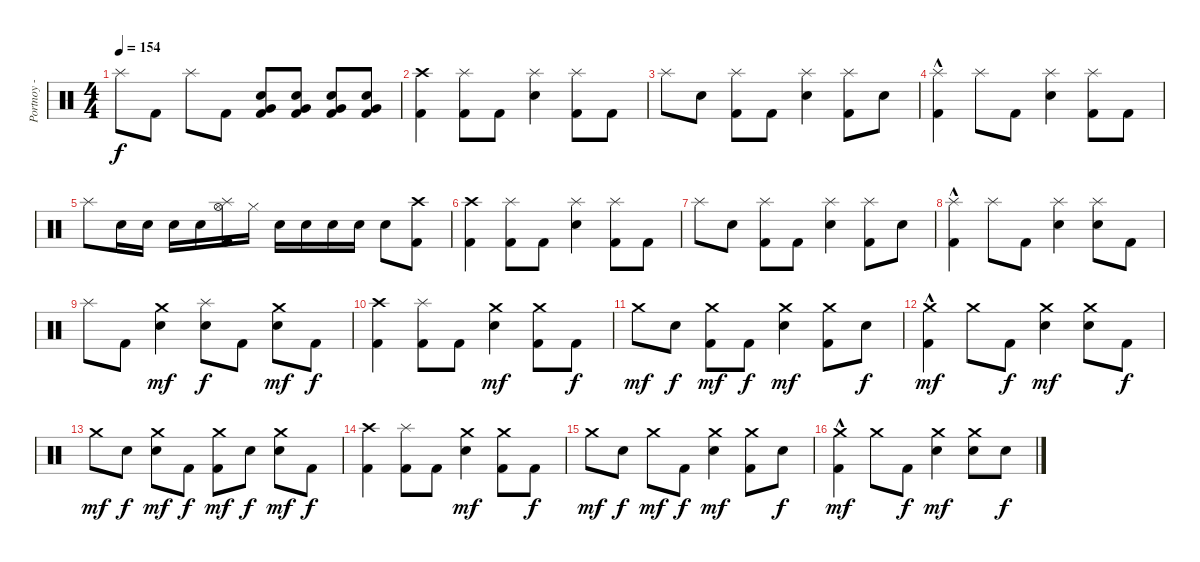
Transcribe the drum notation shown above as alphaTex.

\track ("Portnoy - Drums" "Portnoy - ") {instrument percussion}
\staff {score}
\articulation defaults
\ts (4 4)
\tempo 154
\clef neutral
\ks c "Splash (hit)".8{dy f} "Kick (hit) 2".8 "Splash (hit)".8 "Kick (hit) 2".8
("Electric Snare (hit)" "Kick (hit) 2" "Very Low Tom (hit)").8 ("Electric Snare (hit)" "Kick (hit) 2" "Very Low Tom (hit)").8 ("Electric Snare (hit)" "Kick (hit) 2" "Very Low Tom (hit)").8 ("Electric Snare (hit)" "Kick (hit) 2" "Very Low Tom (hit)").8 |
("Kick (hit) 2" "Crash high (hit)").4 ("Kick (hit) 2" "Splash (hit)").8 "Kick (hit) 2".8 ("Electric Snare (hit)" "Splash (hit)").4 ("Kick (hit) 2" "Splash (hit)").8 "Kick (hit) 2".8 |
"Splash (hit)".8 "Electric Snare (hit)".8 ("Kick (hit) 2" "Splash (hit)").8 "Kick (hit) 2".8 ("Electric Snare (hit)" "Splash (hit)").4 ("Kick (hit) 2" "Splash (hit)").8 "Electric Snare (hit)".8 |
("Kick (hit) 2"{hac} "Splash (hit)").4 "Splash (hit)".8 "Kick (hit) 2".8 ("Electric Snare (hit)" "Splash (hit)").4 ("Kick (hit) 2" "Splash (hit)").8 "Kick (hit) 2".8 |
"Splash (hit)".8 "Electric Snare (hit)".16 "Electric Snare (hit)".16 "Electric Snare (hit)".16 "Electric Snare (hit)".16 ("Kick (hit) 2" "Hi-Hat (open)" "Splash (hit)").16 "Hi-Hat (closed)".16 "Electric Snare (hit)".16 "Electric Snare (hit)".16 "Electric Snare (hit)".16 "Electric Snare (hit)".16 "Electric Snare (hit)".8 ("Kick (hit) 2" "Crash high (hit)").8 |
("Crash high (hit)" "Kick (hit) 2").4 ("Kick (hit) 2" "Splash (hit)").8 "Kick (hit) 2".8 ("Electric Snare (hit)" "Splash (hit)").4 ("Kick (hit) 2" "Splash (hit)").8 "Kick (hit) 2".8 |
"Splash (hit)".8 "Electric Snare (hit)".8 ("Kick (hit) 2" "Splash (hit)").8 "Kick (hit) 2".8 ("Electric Snare (hit)" "Splash (hit)").4 ("Kick (hit) 2" "Splash (hit)").8 "Electric Snare (hit)".8 |
("Kick (hit) 2"{hac} "Splash (hit)").4 "Splash (hit)".8 "Kick (hit) 2".8 ("Electric Snare (hit)" "Splash (hit)").4 ("Electric Snare (hit)" "Splash (hit)").8 "Kick (hit) 2".8 |
"Splash (hit)".8 "Kick (hit) 2".8 ("Electric Snare (hit)" "Crash medium (hit)").4{dy mf} ("Electric Snare (hit)" "Splash (hit)").8{dy f} "Kick (hit) 2".8 ("Electric Snare (hit)" "Crash medium (hit)").8{dy mf} "Kick (hit) 2".8{dy f} |
("Kick (hit) 2" "Crash high (hit)").4 ("Kick (hit) 2" "Splash (hit)").8 "Kick (hit) 2".8 ("Electric Snare (hit)" "Crash medium (hit)").4{dy mf} ("Kick (hit) 2" "Crash medium (hit)").8 "Kick (hit) 2".8{dy f} |
"Crash medium (hit)".8{dy mf} "Electric Snare (hit)".8{dy f} ("Kick (hit) 2" "Crash medium (hit)").8{dy mf} "Kick (hit) 2".8{dy f} ("Electric Snare (hit)" "Crash medium (hit)").4{dy mf} ("Kick (hit) 2" "Crash medium (hit)").8 "Electric Snare (hit)".8{dy f} |
("Kick (hit) 2"{hac} "Crash medium (hit)").4{dy mf} "Crash medium (hit)".8 "Kick (hit) 2".8{dy f} ("Electric Snare (hit)" "Crash medium (hit)").4{dy mf} ("Electric Snare (hit)" "Crash medium (hit)").8 "Kick (hit) 2".8{dy f} |
"Crash medium (hit)".8{dy mf} "Electric Snare (hit)".8{dy f} ("Electric Snare (hit)" "Crash medium (hit)").8{dy mf} "Kick (hit) 2".8{dy f} ("Kick (hit) 2" "Crash medium (hit)").8{dy mf} "Electric Snare (hit)".8{dy f} ("Electric Snare (hit)" "Crash medium (hit)").8{dy mf} "Kick (hit) 2".8{dy f} |
("Crash high (hit)" "Kick (hit) 2").4 ("Kick (hit) 2" "Splash (hit)").8 "Kick (hit) 2".8 ("Electric Snare (hit)" "Crash medium (hit)").4{dy mf} ("Kick (hit) 2" "Crash medium (hit)").8 "Kick (hit) 2".8{dy f} |
"Crash medium (hit)".8{dy mf} "Electric Snare (hit)".8{dy f} "Crash medium (hit)".8{dy mf} "Kick (hit) 2".8{dy f} ("Electric Snare (hit)" "Crash medium (hit)").4{dy mf} ("Kick (hit) 2" "Crash medium (hit)").8 "Electric Snare (hit)".8{dy f} |
("Kick (hit) 2"{hac} "Crash medium (hit)").4{dy mf} "Crash medium (hit)".8 "Kick (hit) 2".8{dy f} ("Electric Snare (hit)" "Crash medium (hit)").4{dy mf} ("Electric Snare (hit)" "Crash medium (hit)").8 "Electric Snare (hit)".8{dy f}
